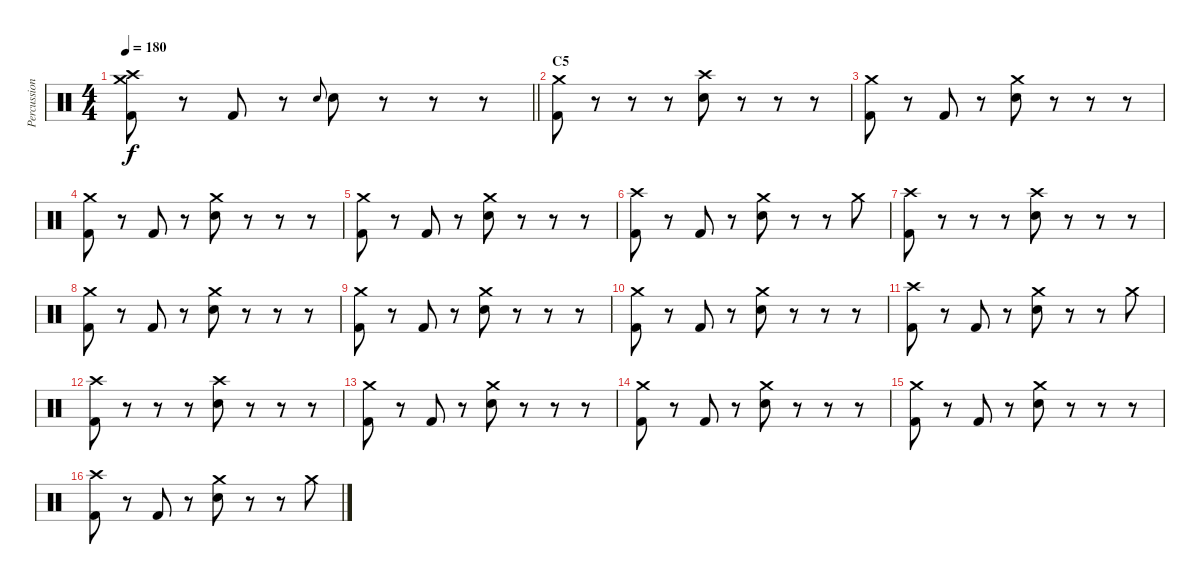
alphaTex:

\track ("Percussion" "Percussion") {instrument percussion}
\staff {score}
\articulation defaults
\ts (4 4)
\tempo 180
\clef neutral
\barLineRight lightlight
\ks c
("Crash medium (hit)" "Crash high (hit)" "Kick (hit) 2").8{dy f} r.8 "Kick (hit) 2".8 r.8 "Snare (hit) 2".8{gr onbeat} "Snare (hit) 2".8 r.8 r.8 r.8 |
\section ("" "C5")
("Crash medium (hit)" "Kick (hit) 2").8 r.8 r.8 r.8 ("Crash high (hit)" "Snare (hit) 2").8 r.8 r.8 r.8 |
("Crash medium (hit)" "Kick (hit) 2").8 r.8 "Kick (hit) 2".8 r.8 ("Crash medium (hit)" "Snare (hit) 2").8 r.8 r.8 r.8 |
("Crash medium (hit)" "Kick (hit) 2").8 r.8 "Kick (hit) 2".8 r.8 ("Crash medium (hit)" "Snare (hit) 2").8 r.8 r.8 r.8 |
("Crash medium (hit)" "Kick (hit) 2").8 r.8 "Kick (hit) 2".8 r.8 ("Crash medium (hit)" "Snare (hit) 2").8 r.8 r.8 r.8 |
("Crash high (hit)" "Kick (hit) 2").8 r.8 "Kick (hit) 2".8 r.8 ("Crash medium (hit)" "Snare (hit) 2").8 r.8 r.8 "Crash medium (hit)".8 |
("Crash high (hit)" "Kick (hit) 2").8 r.8 r.8 r.8 ("Crash high (hit)" "Snare (hit) 2").8 r.8 r.8 r.8 |
("Crash medium (hit)" "Kick (hit) 2").8 r.8 "Kick (hit) 2".8 r.8 ("Crash medium (hit)" "Snare (hit) 2").8 r.8 r.8 r.8 |
("Crash medium (hit)" "Kick (hit) 2").8 r.8 "Kick (hit) 2".8 r.8 ("Crash medium (hit)" "Snare (hit) 2").8 r.8 r.8 r.8 |
("Crash medium (hit)" "Kick (hit) 2").8 r.8 "Kick (hit) 2".8 r.8 ("Crash medium (hit)" "Snare (hit) 2").8 r.8 r.8 r.8 |
("Crash high (hit)" "Kick (hit) 2").8 r.8 "Kick (hit) 2".8 r.8 ("Crash medium (hit)" "Snare (hit) 2").8 r.8 r.8 "Crash medium (hit)".8 |
("Crash high (hit)" "Kick (hit) 2").8 r.8 r.8 r.8 ("Crash high (hit)" "Snare (hit) 2").8 r.8 r.8 r.8 |
("Crash medium (hit)" "Kick (hit) 2").8 r.8 "Kick (hit) 2".8 r.8 ("Crash medium (hit)" "Snare (hit) 2").8 r.8 r.8 r.8 |
("Crash medium (hit)" "Kick (hit) 2").8 r.8 "Kick (hit) 2".8 r.8 ("Crash medium (hit)" "Snare (hit) 2").8 r.8 r.8 r.8 |
("Crash medium (hit)" "Kick (hit) 2").8 r.8 "Kick (hit) 2".8 r.8 ("Crash medium (hit)" "Snare (hit) 2").8 r.8 r.8 r.8 |
("Crash high (hit)" "Kick (hit) 2").8 r.8 "Kick (hit) 2".8 r.8 ("Crash medium (hit)" "Snare (hit) 2").8 r.8 r.8 "Crash medium (hit)".8
